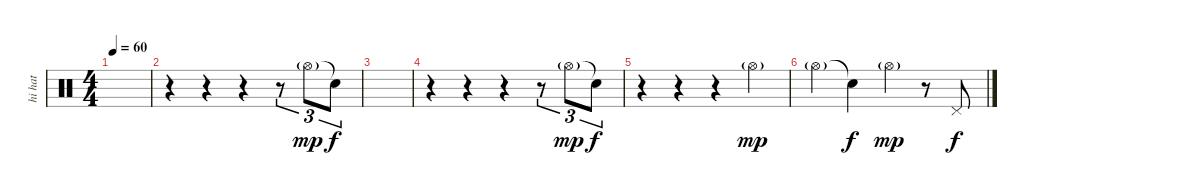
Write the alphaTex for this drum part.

\track ("hi hat" "hi hat") {instrument percussion}
\staff {score}
\articulation defaults
\ts (4 4)
\tempo 60
\clef neutral
\ks c
|
r.4 r.4 r.4 r.8{tu (3 2)} "Hi-Hat (open)"{g}.8{tu (3 2) dy mp} "Snare (hit)"{t}.8{tu (3 2) dy f} |
|
r.4 r.4 r.4 r.8{tu (3 2)} "Hi-Hat (open)"{g}.8{tu (3 2) dy mp} "Snare (hit)"{t}.8{tu (3 2) dy f} |
r.4 r.4 r.4 "Hi-Hat (open)"{g}.4{dy mp} |
"Hi-Hat (open)"{g}.4 "Snare (hit)"{t}.4{dy f} "Hi-Hat (open)"{g}.4{dy mp} r.8 "Pedal Hi-Hat (hit)".8{dy f}
